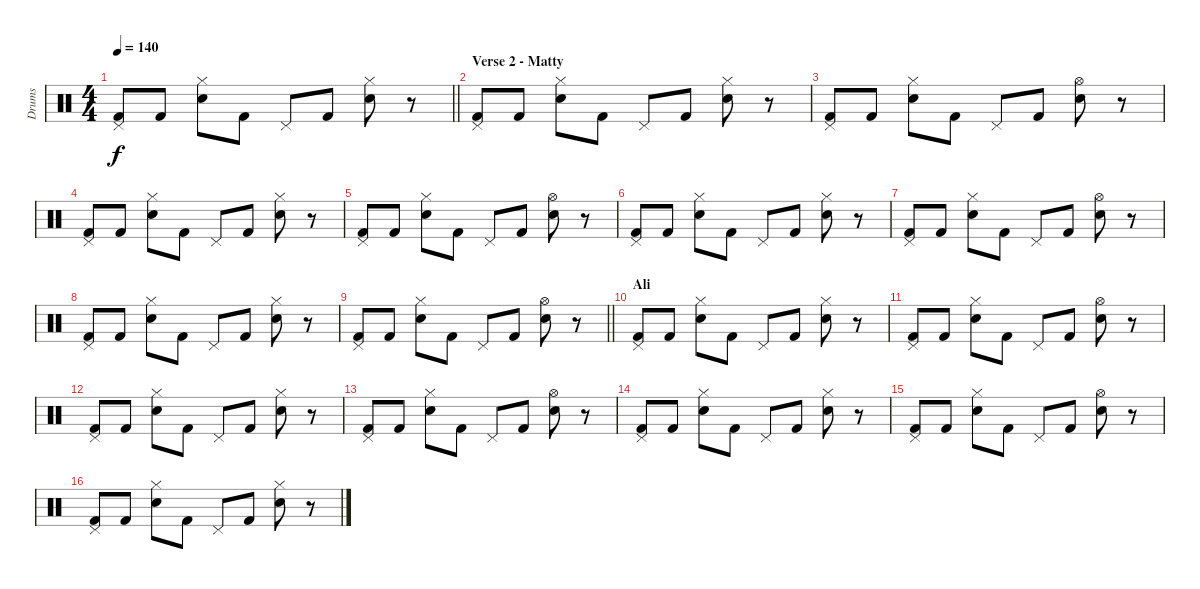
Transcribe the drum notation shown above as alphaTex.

\track ("Drums" "Drums") {instrument percussion bank 127}
\staff {score}
\articulation defaults
\ts (4 4)
\tempo 140
\clef neutral
\barLineRight lightlight
\ks c
("Pedal Hi-Hat (hit)" "Kick (hit) 2").8{dy f} "Kick (hit) 2".8 ("Hi-Hat (closed)" "Electric Snare (hit)").8 "Kick (hit) 2".8 "Pedal Hi-Hat (hit)".8 "Kick (hit) 2".8 ("Hi-Hat (closed)" "Electric Snare (hit)").8 r.8 |
\section ("" "Verse 2 - Matty")
("Pedal Hi-Hat (hit)" "Kick (hit) 2").8 "Kick (hit) 2".8 ("Hi-Hat (closed)" "Electric Snare (hit)").8 "Kick (hit) 2".8 "Pedal Hi-Hat (hit)".8 "Kick (hit) 2".8 ("Hi-Hat (closed)" "Electric Snare (hit)").8 r.8 |
("Pedal Hi-Hat (hit)" "Kick (hit) 2").8 "Kick (hit) 2".8 ("Hi-Hat (closed)" "Electric Snare (hit)").8 "Kick (hit) 2".8 "Pedal Hi-Hat (hit)".8 "Kick (hit) 2".8 ("Hi-Hat (open)" "Electric Snare (hit)").8 r.8 |
("Pedal Hi-Hat (hit)" "Kick (hit) 2").8 "Kick (hit) 2".8 ("Hi-Hat (closed)" "Electric Snare (hit)").8 "Kick (hit) 2".8 "Pedal Hi-Hat (hit)".8 "Kick (hit) 2".8 ("Hi-Hat (closed)" "Electric Snare (hit)").8 r.8 |
("Pedal Hi-Hat (hit)" "Kick (hit) 2").8 "Kick (hit) 2".8 ("Hi-Hat (closed)" "Electric Snare (hit)").8 "Kick (hit) 2".8 "Pedal Hi-Hat (hit)".8 "Kick (hit) 2".8 ("Hi-Hat (open)" "Electric Snare (hit)").8 r.8 |
("Pedal Hi-Hat (hit)" "Kick (hit) 2").8 "Kick (hit) 2".8 ("Hi-Hat (closed)" "Electric Snare (hit)").8 "Kick (hit) 2".8 "Pedal Hi-Hat (hit)".8 "Kick (hit) 2".8 ("Hi-Hat (closed)" "Electric Snare (hit)").8 r.8 |
("Pedal Hi-Hat (hit)" "Kick (hit) 2").8 "Kick (hit) 2".8 ("Hi-Hat (closed)" "Electric Snare (hit)").8 "Kick (hit) 2".8 "Pedal Hi-Hat (hit)".8 "Kick (hit) 2".8 ("Hi-Hat (open)" "Electric Snare (hit)").8 r.8 |
("Pedal Hi-Hat (hit)" "Kick (hit) 2").8 "Kick (hit) 2".8 ("Hi-Hat (closed)" "Electric Snare (hit)").8 "Kick (hit) 2".8 "Pedal Hi-Hat (hit)".8 "Kick (hit) 2".8 ("Hi-Hat (closed)" "Electric Snare (hit)").8 r.8 |
\barLineRight lightlight
("Pedal Hi-Hat (hit)" "Kick (hit) 2").8 "Kick (hit) 2".8 ("Hi-Hat (closed)" "Electric Snare (hit)").8 "Kick (hit) 2".8 "Pedal Hi-Hat (hit)".8 "Kick (hit) 2".8 ("Hi-Hat (open)" "Electric Snare (hit)").8 r.8 |
\section ("" "Ali")
("Pedal Hi-Hat (hit)" "Kick (hit) 2").8 "Kick (hit) 2".8 ("Hi-Hat (closed)" "Electric Snare (hit)").8 "Kick (hit) 2".8 "Pedal Hi-Hat (hit)".8 "Kick (hit) 2".8 ("Hi-Hat (closed)" "Electric Snare (hit)").8 r.8 |
("Pedal Hi-Hat (hit)" "Kick (hit) 2").8 "Kick (hit) 2".8 ("Hi-Hat (closed)" "Electric Snare (hit)").8 "Kick (hit) 2".8 "Pedal Hi-Hat (hit)".8 "Kick (hit) 2".8 ("Hi-Hat (open)" "Electric Snare (hit)").8 r.8 |
("Pedal Hi-Hat (hit)" "Kick (hit) 2").8 "Kick (hit) 2".8 ("Hi-Hat (closed)" "Electric Snare (hit)").8 "Kick (hit) 2".8 "Pedal Hi-Hat (hit)".8 "Kick (hit) 2".8 ("Hi-Hat (closed)" "Electric Snare (hit)").8 r.8 |
("Pedal Hi-Hat (hit)" "Kick (hit) 2").8 "Kick (hit) 2".8 ("Hi-Hat (closed)" "Electric Snare (hit)").8 "Kick (hit) 2".8 "Pedal Hi-Hat (hit)".8 "Kick (hit) 2".8 ("Hi-Hat (open)" "Electric Snare (hit)").8 r.8 |
("Pedal Hi-Hat (hit)" "Kick (hit) 2").8 "Kick (hit) 2".8 ("Hi-Hat (closed)" "Electric Snare (hit)").8 "Kick (hit) 2".8 "Pedal Hi-Hat (hit)".8 "Kick (hit) 2".8 ("Hi-Hat (closed)" "Electric Snare (hit)").8 r.8 |
("Pedal Hi-Hat (hit)" "Kick (hit) 2").8 "Kick (hit) 2".8 ("Hi-Hat (closed)" "Electric Snare (hit)").8 "Kick (hit) 2".8 "Pedal Hi-Hat (hit)".8 "Kick (hit) 2".8 ("Hi-Hat (open)" "Electric Snare (hit)").8 r.8 |
("Pedal Hi-Hat (hit)" "Kick (hit) 2").8 "Kick (hit) 2".8 ("Hi-Hat (closed)" "Electric Snare (hit)").8 "Kick (hit) 2".8 "Pedal Hi-Hat (hit)".8 "Kick (hit) 2".8 ("Hi-Hat (closed)" "Electric Snare (hit)").8 r.8
